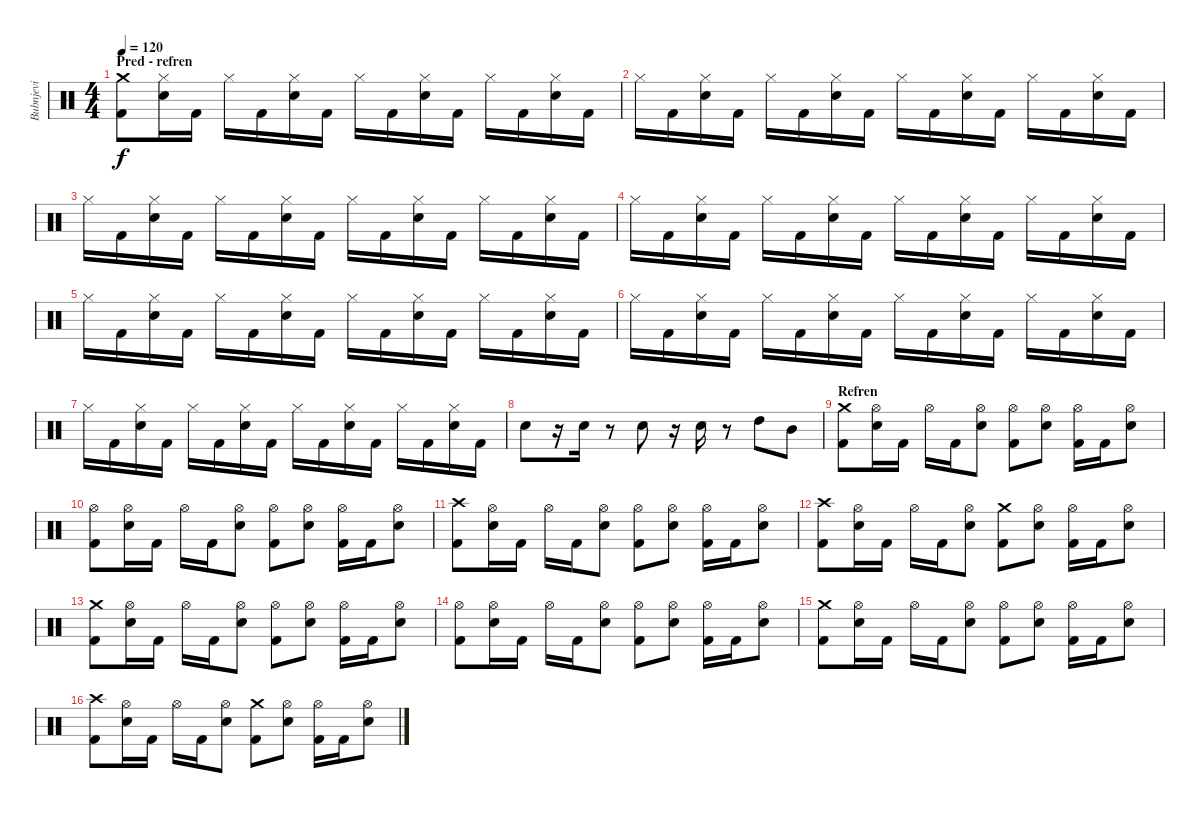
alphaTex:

\track ("Bubnjevi" "Bubnjevi") {instrument percussion}
\staff {score}
\articulation defaults
\ts (4 4)
\section ("" "Pred - refren")
\tempo 120
\clef neutral
\ks c
("Crash medium (hit)" "Kick (hit) 2").8{dy f} ("Hi-Hat (closed)" "Snare (hit) 2").16 "Kick (hit) 2".16 "Hi-Hat (closed)".16 "Kick (hit) 2".16 ("Hi-Hat (closed)" "Snare (hit) 2").16 "Kick (hit) 2".16 "Hi-Hat (closed)".16 "Kick (hit) 2".16 ("Hi-Hat (closed)" "Snare (hit) 2").16 "Kick (hit) 2".16 "Hi-Hat (closed)".16 "Kick (hit) 2".16 ("Hi-Hat (closed)" "Snare (hit) 2").16 "Kick (hit) 2".16 |
"Hi-Hat (closed)".16 "Kick (hit) 2".16 ("Hi-Hat (closed)" "Snare (hit) 2").16 "Kick (hit) 2".16 "Hi-Hat (closed)".16 "Kick (hit) 2".16 ("Hi-Hat (closed)" "Snare (hit) 2").16 "Kick (hit) 2".16 "Hi-Hat (closed)".16 "Kick (hit) 2".16 ("Hi-Hat (closed)" "Snare (hit) 2").16 "Kick (hit) 2".16 "Hi-Hat (closed)".16 "Kick (hit) 2".16 ("Hi-Hat (closed)" "Snare (hit) 2").16 "Kick (hit) 2".16 |
"Hi-Hat (closed)".16 "Kick (hit) 2".16 ("Hi-Hat (closed)" "Snare (hit) 2").16 "Kick (hit) 2".16 "Hi-Hat (closed)".16 "Kick (hit) 2".16 ("Hi-Hat (closed)" "Snare (hit) 2").16 "Kick (hit) 2".16 "Hi-Hat (closed)".16 "Kick (hit) 2".16 ("Hi-Hat (closed)" "Snare (hit) 2").16 "Kick (hit) 2".16 "Hi-Hat (closed)".16 "Kick (hit) 2".16 ("Hi-Hat (closed)" "Snare (hit) 2").16 "Kick (hit) 2".16 |
"Hi-Hat (closed)".16 "Kick (hit) 2".16 ("Hi-Hat (closed)" "Snare (hit) 2").16 "Kick (hit) 2".16 "Hi-Hat (closed)".16 "Kick (hit) 2".16 ("Hi-Hat (closed)" "Snare (hit) 2").16 "Kick (hit) 2".16 "Hi-Hat (closed)".16 "Kick (hit) 2".16 ("Hi-Hat (closed)" "Snare (hit) 2").16 "Kick (hit) 2".16 "Hi-Hat (closed)".16 "Kick (hit) 2".16 ("Hi-Hat (closed)" "Snare (hit) 2").16 "Kick (hit) 2".16 |
"Hi-Hat (closed)".16 "Kick (hit) 2".16 ("Hi-Hat (closed)" "Snare (hit) 2").16 "Kick (hit) 2".16 "Hi-Hat (closed)".16 "Kick (hit) 2".16 ("Hi-Hat (closed)" "Snare (hit) 2").16 "Kick (hit) 2".16 "Hi-Hat (closed)".16 "Kick (hit) 2".16 ("Hi-Hat (closed)" "Snare (hit) 2").16 "Kick (hit) 2".16 "Hi-Hat (closed)".16 "Kick (hit) 2".16 ("Hi-Hat (closed)" "Snare (hit) 2").16 "Kick (hit) 2".16 |
"Hi-Hat (closed)".16 "Kick (hit) 2".16 ("Hi-Hat (closed)" "Snare (hit) 2").16 "Kick (hit) 2".16 "Hi-Hat (closed)".16 "Kick (hit) 2".16 ("Hi-Hat (closed)" "Snare (hit) 2").16 "Kick (hit) 2".16 "Hi-Hat (closed)".16 "Kick (hit) 2".16 ("Hi-Hat (closed)" "Snare (hit) 2").16 "Kick (hit) 2".16 "Hi-Hat (closed)".16 "Kick (hit) 2".16 ("Hi-Hat (closed)" "Snare (hit) 2").16 "Kick (hit) 2".16 |
"Hi-Hat (closed)".16 "Kick (hit) 2".16 ("Hi-Hat (closed)" "Snare (hit) 2").16 "Kick (hit) 2".16 "Hi-Hat (closed)".16 "Kick (hit) 2".16 ("Hi-Hat (closed)" "Snare (hit) 2").16 "Kick (hit) 2".16 "Hi-Hat (closed)".16 "Kick (hit) 2".16 ("Hi-Hat (closed)" "Snare (hit) 2").16 "Kick (hit) 2".16 "Hi-Hat (closed)".16 "Kick (hit) 2".16 ("Hi-Hat (closed)" "Snare (hit) 2").16 "Kick (hit) 2".16 |
"Snare (hit) 2".8 r.16 "Snare (hit) 2".16 r.8 "Snare (hit) 2".8 r.16 "Snare (hit) 2".16 r.8 "High Tom (hit)".8 "Mid Tom (hit)".8 |
\section ("" "Refren")
("Crash medium (hit)" "Kick (hit) 2").8 ("Hi-Hat (open)" "Snare (hit) 2").16 "Kick (hit) 2".16 "Hi-Hat (open)".16 "Kick (hit) 2".16 ("Hi-Hat (open)" "Snare (hit) 2").8 ("Hi-Hat (open)" "Kick (hit) 2").8 ("Hi-Hat (open)" "Snare (hit) 2").8 ("Hi-Hat (open)" "Kick (hit) 2").16 "Kick (hit) 2".16 ("Hi-Hat (open)" "Snare (hit) 2").8 |
("Hi-Hat (open)" "Kick (hit) 2").8 ("Hi-Hat (open)" "Snare (hit) 2").16 "Kick (hit) 2".16 "Hi-Hat (open)".16 "Kick (hit) 2".16 ("Hi-Hat (open)" "Snare (hit) 2").8 ("Hi-Hat (open)" "Kick (hit) 2").8 ("Hi-Hat (open)" "Snare (hit) 2").8 ("Hi-Hat (open)" "Kick (hit) 2").16 "Kick (hit) 2".16 ("Hi-Hat (open)" "Snare (hit) 2").8 |
("Crash high (hit)" "Kick (hit) 2").8 ("Hi-Hat (open)" "Snare (hit) 2").16 "Kick (hit) 2".16 "Hi-Hat (open)".16 "Kick (hit) 2".16 ("Hi-Hat (open)" "Snare (hit) 2").8 ("Hi-Hat (open)" "Kick (hit) 2").8 ("Hi-Hat (open)" "Snare (hit) 2").8 ("Hi-Hat (open)" "Kick (hit) 2").16 "Kick (hit) 2".16 ("Hi-Hat (open)" "Snare (hit) 2").8 |
("Crash high (hit)" "Kick (hit) 2").8 ("Hi-Hat (open)" "Snare (hit) 2").16 "Kick (hit) 2".16 "Hi-Hat (open)".16 "Kick (hit) 2".16 ("Hi-Hat (open)" "Snare (hit) 2").8 ("Crash medium (hit)" "Kick (hit) 2").8 ("Hi-Hat (open)" "Snare (hit) 2").8 ("Hi-Hat (open)" "Kick (hit) 2").16 "Kick (hit) 2".16 ("Hi-Hat (open)" "Snare (hit) 2").8 |
("Crash medium (hit)" "Kick (hit) 2").8 ("Hi-Hat (open)" "Snare (hit) 2").16 "Kick (hit) 2".16 "Hi-Hat (open)".16 "Kick (hit) 2".16 ("Hi-Hat (open)" "Snare (hit) 2").8 ("Hi-Hat (open)" "Kick (hit) 2").8 ("Hi-Hat (open)" "Snare (hit) 2").8 ("Hi-Hat (open)" "Kick (hit) 2").16 "Kick (hit) 2".16 ("Hi-Hat (open)" "Snare (hit) 2").8 |
("Hi-Hat (open)" "Kick (hit) 2").8 ("Hi-Hat (open)" "Snare (hit) 2").16 "Kick (hit) 2".16 "Hi-Hat (open)".16 "Kick (hit) 2".16 ("Hi-Hat (open)" "Snare (hit) 2").8 ("Hi-Hat (open)" "Kick (hit) 2").8 ("Hi-Hat (open)" "Snare (hit) 2").8 ("Hi-Hat (open)" "Kick (hit) 2").16 "Kick (hit) 2".16 ("Hi-Hat (open)" "Snare (hit) 2").8 |
("Crash medium (hit)" "Kick (hit) 2").8 ("Hi-Hat (open)" "Snare (hit) 2").16 "Kick (hit) 2".16 "Hi-Hat (open)".16 "Kick (hit) 2".16 ("Hi-Hat (open)" "Snare (hit) 2").8 ("Hi-Hat (open)" "Kick (hit) 2").8 ("Hi-Hat (open)" "Snare (hit) 2").8 ("Hi-Hat (open)" "Kick (hit) 2").16 "Kick (hit) 2".16 ("Hi-Hat (open)" "Snare (hit) 2").8 |
("Crash high (hit)" "Kick (hit) 2").8 ("Hi-Hat (open)" "Snare (hit) 2").16 "Kick (hit) 2".16 "Hi-Hat (open)".16 "Kick (hit) 2".16 ("Hi-Hat (open)" "Snare (hit) 2").8 ("Crash medium (hit)" "Kick (hit) 2").8 ("Hi-Hat (open)" "Snare (hit) 2").8 ("Hi-Hat (open)" "Kick (hit) 2").16 "Kick (hit) 2".16 ("Hi-Hat (open)" "Snare (hit) 2").8
